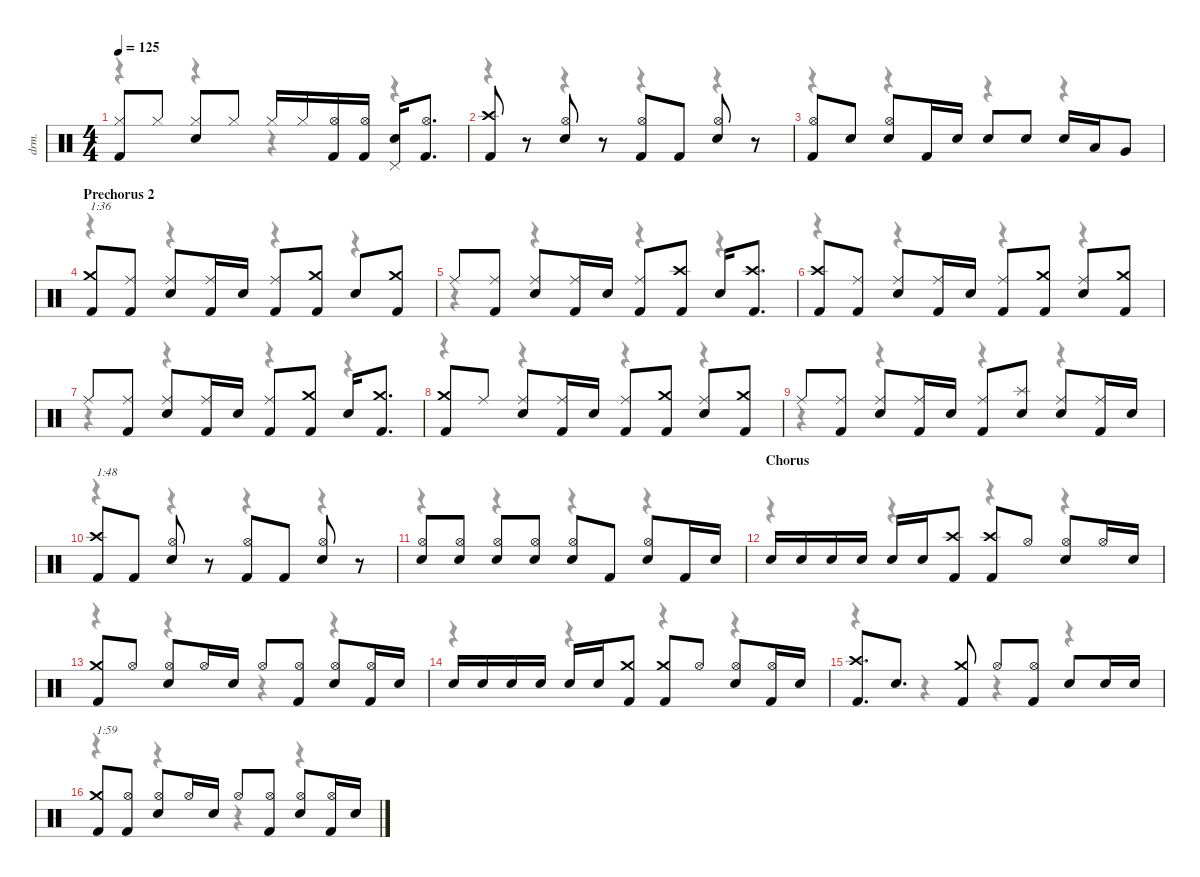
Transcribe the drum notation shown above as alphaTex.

\defaultSystemsLayout 4
\hideDynamics
\bracketExtendMode nobrackets
\otherSystemsTrackNameOrientation horizontal
\track ("Drums" "drm.") {instrument percussion}
\staff {score}
\articulation defaults
\voice
\ts (4 4)
\tempo 125
\clef neutral
\ks c
("Hi-Hat (closed)" "Kick (hit) 2").8{dy f beam Up} "Hi-Hat (closed)".8{beam Up} ("Hi-Hat (closed)" "Snare (hit) 2").8{beam Up} "Hi-Hat (closed)".8{beam Up} "Hi-Hat (closed)".16{beam Up} "Hi-Hat (closed)".16{beam Up} ("Hi-Hat (open)" "Kick (hit) 2").16{beam Up} ("Hi-Hat (open)" "Kick (hit) 2").16{beam Up} ("Pedal Hi-Hat (hit)" "Snare (hit) 2").16{beam Up} ("Hi-Hat (open)" "Kick (hit) 2").8{d beam Up} |
("Crash high (hit)" "Kick (hit) 2").8{beam Up} r.8{beam Up} ("Hi-Hat (open)" "Snare (hit) 2").8{beam Up} r.8{beam Up} ("Hi-Hat (open)" "Kick (hit) 2").8{beam Up} "Kick (hit) 2".8{beam Up} ("Hi-Hat (open)" "Snare (hit) 2").8{beam Up} r.8{beam Up} |
("Hi-Hat (open)" "Kick (hit) 2").8{beam Up} "Snare (hit) 2".8{beam Up} ("Hi-Hat (open)" "Snare (hit) 2").8{beam Up} "Kick (hit) 2".16{beam Up} "Snare (hit) 2".16{beam Up} "Snare (hit) 2".8{beam Up} "Snare (hit) 2".8{beam Up} "Snare (hit) 2".16{beam Up} "Low Tom (hit)".16{beam Up} "Very Low Tom (hit)".8{beam Up} |
\section ("" "Prechorus 2")
("Crash medium (hit)" "Kick (hit) 2").8{txt "1:36" beam Up} ("Ride (middle)" "Kick (hit) 2").8{beam Up} ("Ride (middle)" "Snare (hit) 2").8{beam Up} ("Ride (middle)" "Kick (hit) 2").16{beam Up} "Snare (hit) 2".16{beam Up} ("Ride (middle)" "Kick (hit) 2").8{beam Up} ("Crash medium (hit)" "Kick (hit) 2").8{beam Up} "Snare (hit) 2".8{beam Up} ("Crash medium (hit)" "Kick (hit) 2").8{beam Up} |
"Ride (middle)".8{beam Up} ("Ride (middle)" "Kick (hit) 2").8{beam Up} ("Ride (middle)" "Snare (hit) 2").8{beam Up} ("Ride (middle)" "Kick (hit) 2").16{beam Up} "Snare (hit) 2".16{beam Up} ("Ride (middle)" "Kick (hit) 2").8{beam Up} ("Crash high (hit)" "Kick (hit) 2").8{beam Up} "Snare (hit) 2".16{beam Up} ("Crash high (hit)" "Kick (hit) 2").8{d beam Up} |
("Crash high (hit)" "Kick (hit) 2").8{beam Up} ("Ride (middle)" "Kick (hit) 2").8{beam Up} ("Ride (middle)" "Snare (hit) 2").8{beam Up} ("Ride (middle)" "Kick (hit) 2").16{beam Up} "Snare (hit) 2".16{beam Up} ("Ride (middle)" "Kick (hit) 2").8{beam Up} ("Crash medium (hit)" "Kick (hit) 2").8{beam Up} ("Ride (middle)" "Snare (hit) 2").8{beam Up} ("Crash medium (hit)" "Kick (hit) 2").8{beam Up} |
"Ride (middle)".8{beam Up} ("Ride (middle)" "Kick (hit) 2").8{beam Up} ("Ride (middle)" "Snare (hit) 2").8{beam Up} ("Ride (middle)" "Kick (hit) 2").16{beam Up} "Snare (hit) 2".16{beam Up} ("Ride (middle)" "Kick (hit) 2").8{beam Up} ("Crash medium (hit)" "Kick (hit) 2").8{beam Up} "Snare (hit) 2".16{beam Up} ("Crash medium (hit)" "Kick (hit) 2").8{d beam Up} |
("Crash medium (hit)" "Kick (hit) 2").8{beam Up} "Ride (middle)".8{beam Up} ("Ride (middle)" "Snare (hit) 2").8{beam Up} ("Ride (middle)" "Kick (hit) 2").16{beam Up} "Snare (hit) 2".16{beam Up} ("Ride (middle)" "Kick (hit) 2").8{beam Up} ("Crash medium (hit)" "Kick (hit) 2").8{beam Up} ("Ride (middle)" "Snare (hit) 2").8{beam Up} ("Crash medium (hit)" "Kick (hit) 2").8{beam Up} |
"Ride (middle)".8{beam Up} ("Ride (middle)" "Kick (hit) 2").8{beam Up} ("Ride (middle)" "Snare (hit) 2").8{beam Up} ("Ride (middle)" "Kick (hit) 2").16{beam Up} "Snare (hit) 2".16{beam Up} ("Ride (middle)" "Kick (hit) 2").8{beam Up} ("Splash (hit)" "Snare (hit) 2").8{beam Up} ("Ride (middle)" "Snare (hit) 2").8{beam Up} ("Ride (middle)" "Kick (hit) 2").16{beam Up} "Snare (hit) 2".16{beam Up} |
("Crash high (hit)" "Kick (hit) 2").8{txt "1:48" beam Up} "Kick (hit) 2".8{beam Up} ("Hi-Hat (open)" "Snare (hit) 2").8{beam Up} r.8{beam Up} ("Hi-Hat (open)" "Kick (hit) 2").8{beam Up} "Kick (hit) 2".8{beam Up} ("Hi-Hat (open)" "Snare (hit) 2").8{beam Up} r.8{beam Up} |
("Hi-Hat (open)" "Snare (hit) 2").8{beam Up} ("Hi-Hat (open)" "Snare (hit) 2").8{beam Up} ("Hi-Hat (open)" "Snare (hit) 2").8{beam Up} ("Hi-Hat (open)" "Snare (hit) 2").8{beam Up} ("Hi-Hat (open)" "Snare (hit) 2").8{beam Up} "Kick (hit) 2".8{beam Up} ("Hi-Hat (open)" "Snare (hit) 2").8{beam Up} "Kick (hit) 2".16{beam Up} "Snare (hit) 2".16{beam Up} |
\section ("" "Chorus")
"Snare (hit) 2".16{beam Up} "Snare (hit) 2".16{beam Up} "Snare (hit) 2".16{beam Up} "Snare (hit) 2".16{beam Up} "Snare (hit) 2".16{beam Up} "Snare (hit) 2".16{beam Up} ("Crash high (hit)" "Kick (hit) 2").8{beam Up} ("Crash high (hit)" "Kick (hit) 2").8{beam Up} "Hi-Hat (open)".8{beam Up} ("Hi-Hat (open)" "Snare (hit) 2").8{beam Up} "Hi-Hat (open)".16{beam Up} "Snare (hit) 2".16{beam Up} |
("Crash medium (hit)" "Kick (hit) 2").8{beam Up} "Hi-Hat (open)".8{beam Up} ("Hi-Hat (open)" "Snare (hit) 2").8{beam Up} "Hi-Hat (open)".16{beam Up} "Snare (hit) 2".16{beam Up} "Hi-Hat (open)".8{beam Up} ("Hi-Hat (open)" "Kick (hit) 2").8{beam Up} ("Hi-Hat (open)" "Snare (hit) 2").8{beam Up} ("Hi-Hat (open)" "Kick (hit) 2").16{beam Up} "Snare (hit) 2".16{beam Up} |
"Snare (hit) 2".16{beam Up} "Snare (hit) 2".16{beam Up} "Snare (hit) 2".16{beam Up} "Snare (hit) 2".16{beam Up} "Snare (hit) 2".16{beam Up} "Snare (hit) 2".16{beam Up} ("Crash medium (hit)" "Kick (hit) 2").8{beam Up} ("Crash medium (hit)" "Kick (hit) 2").8{beam Up} "Hi-Hat (open)".8{beam Up} ("Hi-Hat (open)" "Snare (hit) 2").8{beam Up} ("Hi-Hat (open)" "Kick (hit) 2").16{beam Up} "Snare (hit) 2".16{beam Up} |
("Crash high (hit)" "Kick (hit) 2").8{d beam Up} "Snare (hit) 2".8{d beam Up} ("Crash medium (hit)" "Kick (hit) 2").8{beam Up} "Hi-Hat (open)".8{beam Up} ("Hi-Hat (open)" "Kick (hit) 2").8{beam Up} "Snare (hit) 2".8{beam Up} "Snare (hit) 2".16{beam Up} "Snare (hit) 2".16{beam Up} |
("Crash medium (hit)" "Kick (hit) 2").8{txt "1:59" beam Up} ("Hi-Hat (open)" "Kick (hit) 2").8{beam Up} ("Hi-Hat (open)" "Snare (hit) 2").8{beam Up} "Hi-Hat (open)".16{beam Up} "Snare (hit) 2".16{beam Up} "Hi-Hat (open)".8{beam Up} ("Hi-Hat (open)" "Kick (hit) 2").8{beam Up} ("Hi-Hat (open)" "Snare (hit) 2").8{beam Up} ("Hi-Hat (open)" "Kick (hit) 2").16{beam Up} "Snare (hit) 2".16{beam Up}
\voice
\clef neutral
\ottava regular
\simile none
\ks c
r.4{dy mf beam Down} r.4{beam Down} r.4{beam Down} r.4{beam Down} |
r.4{beam Down} r.4{beam Down} r.4{beam Down} r.4{beam Down} |
r.4{beam Down} r.4{beam Down} r.4{beam Down} r.4{beam Down} |
r.4{beam Down} r.4{beam Down} r.4{beam Down} r.4{beam Down} |
r.4{beam Down} r.4{beam Down} r.4{beam Down} r.4{beam Down} |
r.4{beam Down} r.4{beam Down} r.4{beam Down} r.4{beam Down} |
r.4{beam Down} r.4{beam Down} r.4{beam Down} r.4{beam Down} |
r.4{beam Down} r.4{beam Down} r.4{beam Down} r.4{beam Down} |
r.4{beam Down} r.4{beam Down} r.4{beam Down} r.4{beam Down} |
r.4{beam Down} r.4{beam Down} r.4{beam Down} r.4{beam Down} |
r.4{beam Down} r.4{beam Down} r.4{beam Down} r.4{beam Down} |
r.4{beam Down} r.4{beam Down} r.4{beam Down} r.4{beam Down} |
r.4{beam Down} r.4{beam Down} r.4{beam Down} r.4{beam Down} |
r.4{beam Down} r.4{beam Down} r.4{beam Down} r.4{beam Down} |
r.4{beam Down} r.4{beam Down} r.4{beam Down} r.4{beam Down} |
r.4{beam Down} r.4{beam Down} r.4{beam Down} r.4{beam Down}
